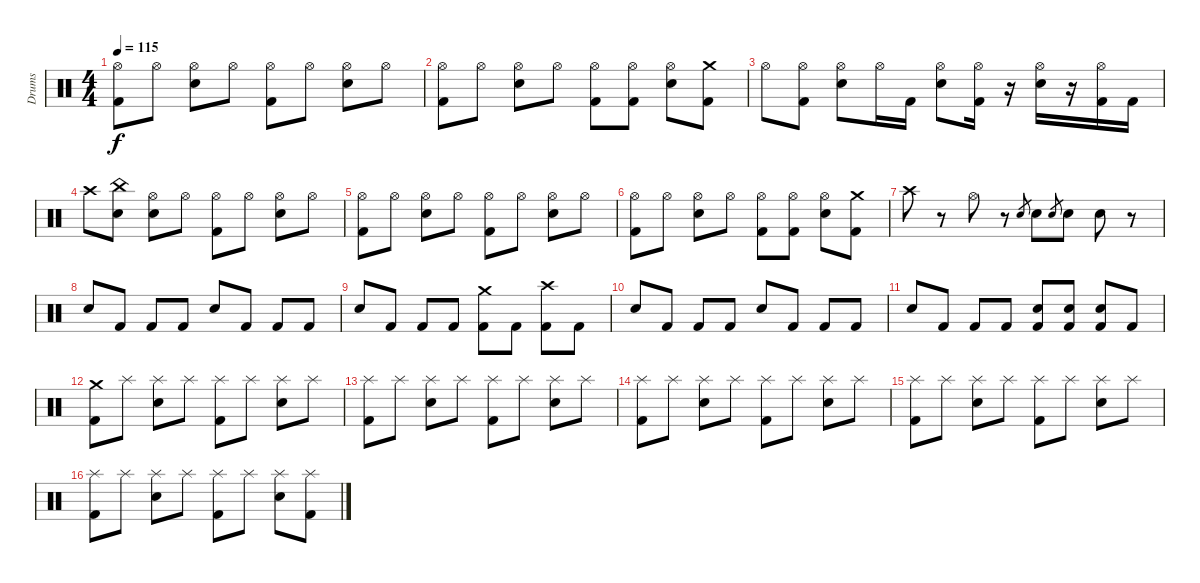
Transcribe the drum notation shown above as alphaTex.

\track ("Drums" "Drums") {instrument percussion}
\staff {score}
\articulation defaults
\ts (4 4)
\tempo 115
\clef neutral
\ks c
("Hi-Hat (open)" "Kick (hit) 2").8{dy f} "Hi-Hat (open)".8 ("Hi-Hat (open)" "Snare (hit) 2").8 "Hi-Hat (open)".8 ("Hi-Hat (open)" "Kick (hit) 2").8 "Hi-Hat (open)".8 ("Hi-Hat (open)" "Snare (hit) 2").8 "Hi-Hat (open)".8 |
("Hi-Hat (open)" "Kick (hit) 2").8 "Hi-Hat (open)".8 ("Hi-Hat (open)" "Snare (hit) 2").8 "Hi-Hat (open)".8 ("Hi-Hat (open)" "Kick (hit) 2").8 ("Hi-Hat (open)" "Kick (hit) 2").8 ("Hi-Hat (open)" "Snare (hit) 2").8 ("Crash medium (hit)" "Kick (hit) 2").8 |
"Hi-Hat (open)".8 ("Hi-Hat (open)" "Kick (hit) 2").8 ("Hi-Hat (open)" "Snare (hit) 2").8 "Hi-Hat (open)".16 "Kick (hit) 2".16 ("Hi-Hat (open)" "Snare (hit) 2").8 ("Hi-Hat (open)" "Kick (hit) 2").16 r.16 ("Hi-Hat (open)" "Snare (hit) 2").16 r.16 ("Hi-Hat (open)" "Kick (hit) 2").16 "Kick (hit) 2".16 |
"Crash high (hit)".8 ("China (hit)" "Snare (hit) 2").8 ("Hi-Hat (open)" "Snare (hit) 2").8 "Hi-Hat (open)".8 ("Hi-Hat (open)" "Kick (hit) 2").8 "Hi-Hat (open)".8 ("Hi-Hat (open)" "Snare (hit) 2").8 "Hi-Hat (open)".8 |
("Hi-Hat (open)" "Kick (hit) 2").8 "Hi-Hat (open)".8 ("Hi-Hat (open)" "Snare (hit) 2").8 "Hi-Hat (open)".8 ("Hi-Hat (open)" "Kick (hit) 2").8 "Hi-Hat (open)".8 ("Hi-Hat (open)" "Snare (hit) 2").8 "Hi-Hat (open)".8 |
("Hi-Hat (open)" "Kick (hit) 2").8 "Hi-Hat (open)".8 ("Hi-Hat (open)" "Snare (hit) 2").8 "Hi-Hat (open)".8 ("Hi-Hat (open)" "Kick (hit) 2").8 ("Hi-Hat (open)" "Kick (hit) 2").8 ("Hi-Hat (open)" "Snare (hit) 2").8 ("Crash medium (hit)" "Kick (hit) 2").8 |
"Crash high (hit)".8 r.8 "Hi-Hat (open)".8 r.8 "Snare (hit) 2".8{gr} "Snare (hit) 2".8 "Snare (hit) 2".8{gr} "Snare (hit) 2".8 "Snare (hit) 2".8 r.8 |
"Snare (hit) 2".8 "Kick (hit) 2".8 "Kick (hit) 2".8 "Kick (hit) 2".8 "Snare (hit) 2".8 "Kick (hit) 2".8 "Kick (hit) 2".8 "Kick (hit) 2".8 |
"Snare (hit) 2".8 "Kick (hit) 2".8 "Kick (hit) 2".8 "Kick (hit) 2".8 ("Crash medium (hit)" "Kick (hit) 2").8 "Kick (hit) 2".8 ("Crash high (hit)" "Kick (hit) 2").8 "Kick (hit) 2".8 |
"Snare (hit) 2".8 "Kick (hit) 2".8 "Kick (hit) 2".8 "Kick (hit) 2".8 "Snare (hit) 2".8 "Kick (hit) 2".8 "Kick (hit) 2".8 "Kick (hit) 2".8 |
"Snare (hit) 2".8 "Kick (hit) 2".8 "Kick (hit) 2".8 "Kick (hit) 2".8 ("Snare (hit) 2" "Kick (hit) 2").8 ("Snare (hit) 2" "Kick (hit) 2").8 ("Snare (hit) 2" "Kick (hit) 2").8 "Kick (hit) 2".8 |
("Crash medium (hit)" "Kick (hit) 2").8 "Splash (hit)".8 ("Splash (hit)" "Snare (hit) 2").8 "Splash (hit)".8 ("Splash (hit)" "Kick (hit) 2").8 "Splash (hit)".8 ("Splash (hit)" "Snare (hit) 2").8 "Splash (hit)".8 |
("Splash (hit)" "Kick (hit) 2").8 "Splash (hit)".8 ("Splash (hit)" "Snare (hit) 2").8 "Splash (hit)".8 ("Splash (hit)" "Kick (hit) 2").8 "Splash (hit)".8 ("Splash (hit)" "Snare (hit) 2").8 "Splash (hit)".8 |
("Splash (hit)" "Kick (hit) 2").8 "Splash (hit)".8 ("Splash (hit)" "Snare (hit) 2").8 "Splash (hit)".8 ("Splash (hit)" "Kick (hit) 2").8 "Splash (hit)".8 ("Splash (hit)" "Snare (hit) 2").8 "Splash (hit)".8 |
("Splash (hit)" "Kick (hit) 2").8 "Splash (hit)".8 ("Splash (hit)" "Snare (hit) 2").8 "Splash (hit)".8 ("Splash (hit)" "Kick (hit) 2").8 "Splash (hit)".8 ("Splash (hit)" "Snare (hit) 2").8 "Splash (hit)".8 |
("Splash (hit)" "Kick (hit) 2").8 "Splash (hit)".8 ("Splash (hit)" "Snare (hit) 2").8 "Splash (hit)".8 ("Splash (hit)" "Kick (hit) 2").8 "Splash (hit)".8 ("Splash (hit)" "Snare (hit) 2").8 ("Splash (hit)" "Kick (hit) 2").8
